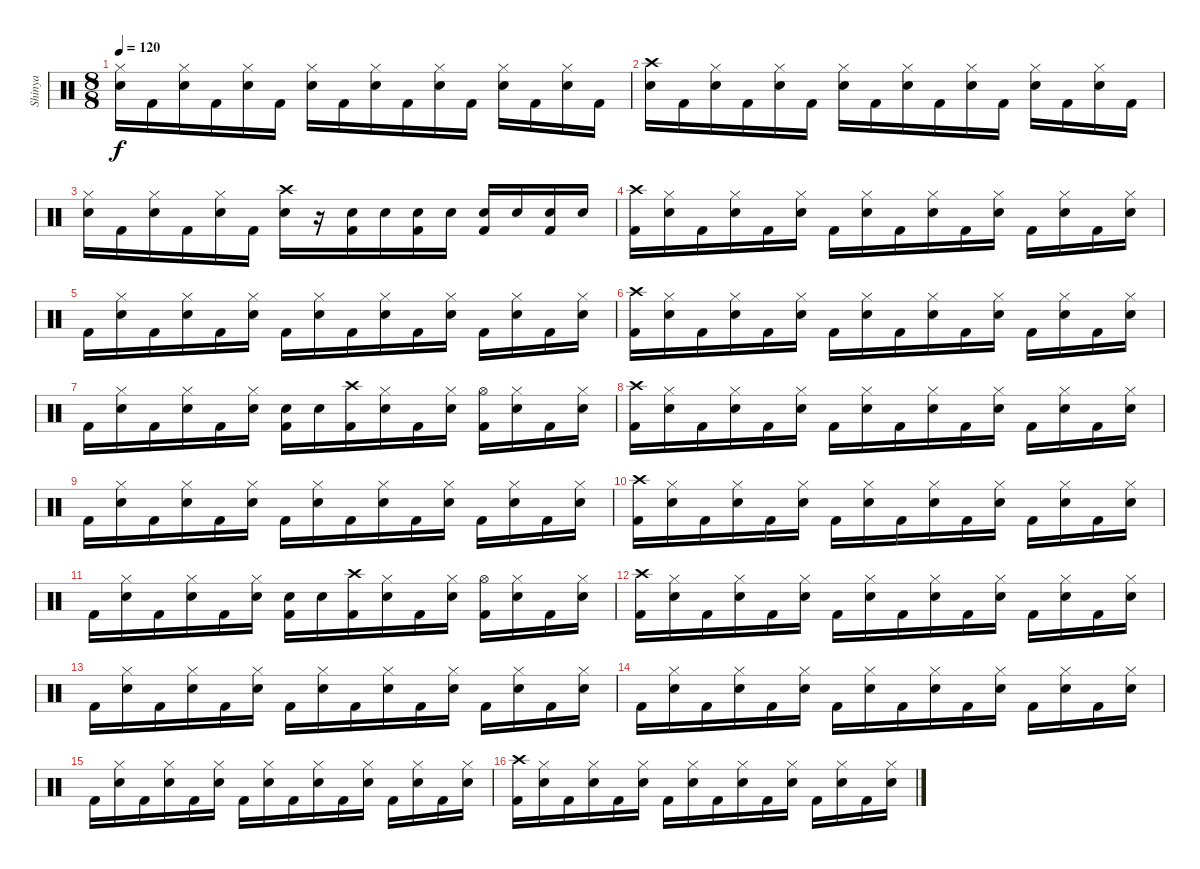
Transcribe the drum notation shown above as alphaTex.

\track ("Shinya" "Shinya") {instrument percussion}
\staff {score}
\articulation defaults
\ts (8 8)
\tempo 120
\clef neutral
\ks c
("Hi-Hat (closed)" "Snare (hit) 2").16{dy f} "Kick (hit) 2".16 ("Hi-Hat (closed)" "Snare (hit) 2").16 "Kick (hit) 2".16 ("Hi-Hat (closed)" "Snare (hit) 2").16 "Kick (hit) 2".16 ("Hi-Hat (closed)" "Snare (hit) 2").16 "Kick (hit) 2".16 ("Hi-Hat (closed)" "Snare (hit) 2").16 "Kick (hit) 2".16 ("Hi-Hat (closed)" "Snare (hit) 2").16 "Kick (hit) 2".16 ("Hi-Hat (closed)" "Snare (hit) 2").16 "Kick (hit) 2".16 ("Hi-Hat (closed)" "Snare (hit) 2").16 "Kick (hit) 2".16 |
("Crash high (hit)" "Snare (hit) 2").16 "Kick (hit) 2".16 ("Hi-Hat (closed)" "Snare (hit) 2").16 "Kick (hit) 2".16 ("Hi-Hat (closed)" "Snare (hit) 2").16 "Kick (hit) 2".16 ("Hi-Hat (closed)" "Snare (hit) 2").16 "Kick (hit) 2".16 ("Hi-Hat (closed)" "Snare (hit) 2").16 "Kick (hit) 2".16 ("Hi-Hat (closed)" "Snare (hit) 2").16 "Kick (hit) 2".16 ("Hi-Hat (closed)" "Snare (hit) 2").16 "Kick (hit) 2".16 ("Hi-Hat (closed)" "Snare (hit) 2").16 "Kick (hit) 2".16 |
("Hi-Hat (closed)" "Snare (hit) 2").16 "Kick (hit) 2".16 ("Hi-Hat (closed)" "Snare (hit) 2").16 "Kick (hit) 2".16 ("Hi-Hat (closed)" "Snare (hit) 2").16 "Kick (hit) 2".16 ("Crash high (hit)" "Snare (hit) 2").16 r.16 ("Snare (hit) 2" "Kick (hit) 2").16 "Snare (hit) 2".16 ("Snare (hit) 2" "Kick (hit) 2").16 "Snare (hit) 2".16 ("Snare (hit) 2" "Kick (hit) 2").16 "Snare (hit) 2".16 ("Snare (hit) 2" "Kick (hit) 2").16 "Snare (hit) 2".16 |
("Crash high (hit)" "Kick (hit) 2").16 ("Hi-Hat (closed)" "Snare (hit) 2").16 "Kick (hit) 2".16 ("Hi-Hat (closed)" "Snare (hit) 2").16 "Kick (hit) 2".16 ("Hi-Hat (closed)" "Snare (hit) 2").16 "Kick (hit) 2".16 ("Hi-Hat (closed)" "Snare (hit) 2").16 "Kick (hit) 2".16 ("Hi-Hat (closed)" "Snare (hit) 2").16 "Kick (hit) 2".16 ("Hi-Hat (closed)" "Snare (hit) 2").16 "Kick (hit) 2".16 ("Hi-Hat (closed)" "Snare (hit) 2").16 "Kick (hit) 2".16 ("Hi-Hat (closed)" "Snare (hit) 2").16 |
"Kick (hit) 2".16 ("Hi-Hat (closed)" "Snare (hit) 2").16 "Kick (hit) 2".16 ("Hi-Hat (closed)" "Snare (hit) 2").16 "Kick (hit) 2".16 ("Hi-Hat (closed)" "Snare (hit) 2").16 "Kick (hit) 2".16 ("Hi-Hat (closed)" "Snare (hit) 2").16 "Kick (hit) 2".16 ("Hi-Hat (closed)" "Snare (hit) 2").16 "Kick (hit) 2".16 ("Hi-Hat (closed)" "Snare (hit) 2").16 "Kick (hit) 2".16 ("Hi-Hat (closed)" "Snare (hit) 2").16 "Kick (hit) 2".16 ("Hi-Hat (closed)" "Snare (hit) 2").16 |
("Crash high (hit)" "Kick (hit) 2").16 ("Hi-Hat (closed)" "Snare (hit) 2").16 "Kick (hit) 2".16 ("Hi-Hat (closed)" "Snare (hit) 2").16 "Kick (hit) 2".16 ("Hi-Hat (closed)" "Snare (hit) 2").16 "Kick (hit) 2".16 ("Hi-Hat (closed)" "Snare (hit) 2").16 "Kick (hit) 2".16 ("Hi-Hat (closed)" "Snare (hit) 2").16 "Kick (hit) 2".16 ("Hi-Hat (closed)" "Snare (hit) 2").16 "Kick (hit) 2".16 ("Hi-Hat (closed)" "Snare (hit) 2").16 "Kick (hit) 2".16 ("Hi-Hat (closed)" "Snare (hit) 2").16 |
"Kick (hit) 2".16 ("Hi-Hat (closed)" "Snare (hit) 2").16 "Kick (hit) 2".16 ("Hi-Hat (closed)" "Snare (hit) 2").16 "Kick (hit) 2".16 ("Hi-Hat (closed)" "Snare (hit) 2").16 ("Snare (hit) 2" "Kick (hit) 2").16 "Snare (hit) 2".16 ("Crash high (hit)" "Kick (hit) 2").16 ("Hi-Hat (closed)" "Snare (hit) 2").16 "Kick (hit) 2".16 ("Hi-Hat (closed)" "Snare (hit) 2").16 ("Hi-Hat (open)" "Kick (hit) 2").16 ("Hi-Hat (closed)" "Snare (hit) 2").16 "Kick (hit) 2".16 ("Hi-Hat (closed)" "Snare (hit) 2").16 |
("Crash high (hit)" "Kick (hit) 2").16 ("Hi-Hat (closed)" "Snare (hit) 2").16 "Kick (hit) 2".16 ("Hi-Hat (closed)" "Snare (hit) 2").16 "Kick (hit) 2".16 ("Hi-Hat (closed)" "Snare (hit) 2").16 "Kick (hit) 2".16 ("Hi-Hat (closed)" "Snare (hit) 2").16 "Kick (hit) 2".16 ("Hi-Hat (closed)" "Snare (hit) 2").16 "Kick (hit) 2".16 ("Hi-Hat (closed)" "Snare (hit) 2").16 "Kick (hit) 2".16 ("Hi-Hat (closed)" "Snare (hit) 2").16 "Kick (hit) 2".16 ("Hi-Hat (closed)" "Snare (hit) 2").16 |
"Kick (hit) 2".16 ("Hi-Hat (closed)" "Snare (hit) 2").16 "Kick (hit) 2".16 ("Hi-Hat (closed)" "Snare (hit) 2").16 "Kick (hit) 2".16 ("Hi-Hat (closed)" "Snare (hit) 2").16 "Kick (hit) 2".16 ("Hi-Hat (closed)" "Snare (hit) 2").16 "Kick (hit) 2".16 ("Hi-Hat (closed)" "Snare (hit) 2").16 "Kick (hit) 2".16 ("Hi-Hat (closed)" "Snare (hit) 2").16 "Kick (hit) 2".16 ("Hi-Hat (closed)" "Snare (hit) 2").16 "Kick (hit) 2".16 ("Hi-Hat (closed)" "Snare (hit) 2").16 |
("Crash high (hit)" "Kick (hit) 2").16 ("Hi-Hat (closed)" "Snare (hit) 2").16 "Kick (hit) 2".16 ("Hi-Hat (closed)" "Snare (hit) 2").16 "Kick (hit) 2".16 ("Hi-Hat (closed)" "Snare (hit) 2").16 "Kick (hit) 2".16 ("Hi-Hat (closed)" "Snare (hit) 2").16 "Kick (hit) 2".16 ("Hi-Hat (closed)" "Snare (hit) 2").16 "Kick (hit) 2".16 ("Hi-Hat (closed)" "Snare (hit) 2").16 "Kick (hit) 2".16 ("Hi-Hat (closed)" "Snare (hit) 2").16 "Kick (hit) 2".16 ("Hi-Hat (closed)" "Snare (hit) 2").16 |
"Kick (hit) 2".16 ("Hi-Hat (closed)" "Snare (hit) 2").16 "Kick (hit) 2".16 ("Hi-Hat (closed)" "Snare (hit) 2").16 "Kick (hit) 2".16 ("Hi-Hat (closed)" "Snare (hit) 2").16 ("Snare (hit) 2" "Kick (hit) 2").16 "Snare (hit) 2".16 ("Crash high (hit)" "Kick (hit) 2").16 ("Hi-Hat (closed)" "Snare (hit) 2").16 "Kick (hit) 2".16 ("Hi-Hat (closed)" "Snare (hit) 2").16 ("Hi-Hat (open)" "Kick (hit) 2").16 ("Hi-Hat (closed)" "Snare (hit) 2").16 "Kick (hit) 2".16 ("Hi-Hat (closed)" "Snare (hit) 2").16 |
("Crash high (hit)" "Kick (hit) 2").16 ("Hi-Hat (closed)" "Snare (hit) 2").16 "Kick (hit) 2".16 ("Hi-Hat (closed)" "Snare (hit) 2").16 "Kick (hit) 2".16 ("Hi-Hat (closed)" "Snare (hit) 2").16 "Kick (hit) 2".16 ("Hi-Hat (closed)" "Snare (hit) 2").16 "Kick (hit) 2".16 ("Hi-Hat (closed)" "Snare (hit) 2").16 "Kick (hit) 2".16 ("Hi-Hat (closed)" "Snare (hit) 2").16 "Kick (hit) 2".16 ("Hi-Hat (closed)" "Snare (hit) 2").16 "Kick (hit) 2".16 ("Hi-Hat (closed)" "Snare (hit) 2").16 |
"Kick (hit) 2".16 ("Hi-Hat (closed)" "Snare (hit) 2").16 "Kick (hit) 2".16 ("Hi-Hat (closed)" "Snare (hit) 2").16 "Kick (hit) 2".16 ("Hi-Hat (closed)" "Snare (hit) 2").16 "Kick (hit) 2".16 ("Hi-Hat (closed)" "Snare (hit) 2").16 "Kick (hit) 2".16 ("Hi-Hat (closed)" "Snare (hit) 2").16 "Kick (hit) 2".16 ("Hi-Hat (closed)" "Snare (hit) 2").16 "Kick (hit) 2".16 ("Hi-Hat (closed)" "Snare (hit) 2").16 "Kick (hit) 2".16 ("Hi-Hat (closed)" "Snare (hit) 2").16 |
"Kick (hit) 2".16 ("Hi-Hat (closed)" "Snare (hit) 2").16 "Kick (hit) 2".16 ("Hi-Hat (closed)" "Snare (hit) 2").16 "Kick (hit) 2".16 ("Hi-Hat (closed)" "Snare (hit) 2").16 "Kick (hit) 2".16 ("Hi-Hat (closed)" "Snare (hit) 2").16 "Kick (hit) 2".16 ("Hi-Hat (closed)" "Snare (hit) 2").16 "Kick (hit) 2".16 ("Hi-Hat (closed)" "Snare (hit) 2").16 "Kick (hit) 2".16 ("Hi-Hat (closed)" "Snare (hit) 2").16 "Kick (hit) 2".16 ("Hi-Hat (closed)" "Snare (hit) 2").16 |
"Kick (hit) 2".16 ("Hi-Hat (closed)" "Snare (hit) 2").16 "Kick (hit) 2".16 ("Hi-Hat (closed)" "Snare (hit) 2").16 "Kick (hit) 2".16 ("Hi-Hat (closed)" "Snare (hit) 2").16 "Kick (hit) 2".16 ("Hi-Hat (closed)" "Snare (hit) 2").16 "Kick (hit) 2".16 ("Hi-Hat (closed)" "Snare (hit) 2").16 "Kick (hit) 2".16 ("Hi-Hat (closed)" "Snare (hit) 2").16 "Kick (hit) 2".16 ("Hi-Hat (closed)" "Snare (hit) 2").16 "Kick (hit) 2".16 ("Hi-Hat (closed)" "Snare (hit) 2").16 |
("Crash high (hit)" "Kick (hit) 2").16 ("Hi-Hat (closed)" "Snare (hit) 2").16 "Kick (hit) 2".16 ("Hi-Hat (closed)" "Snare (hit) 2").16 "Kick (hit) 2".16 ("Hi-Hat (closed)" "Snare (hit) 2").16 "Kick (hit) 2".16 ("Hi-Hat (closed)" "Snare (hit) 2").16 "Kick (hit) 2".16 ("Hi-Hat (closed)" "Snare (hit) 2").16 "Kick (hit) 2".16 ("Hi-Hat (closed)" "Snare (hit) 2").16 "Kick (hit) 2".16 ("Hi-Hat (closed)" "Snare (hit) 2").16 "Kick (hit) 2".16 ("Hi-Hat (closed)" "Snare (hit) 2").16
